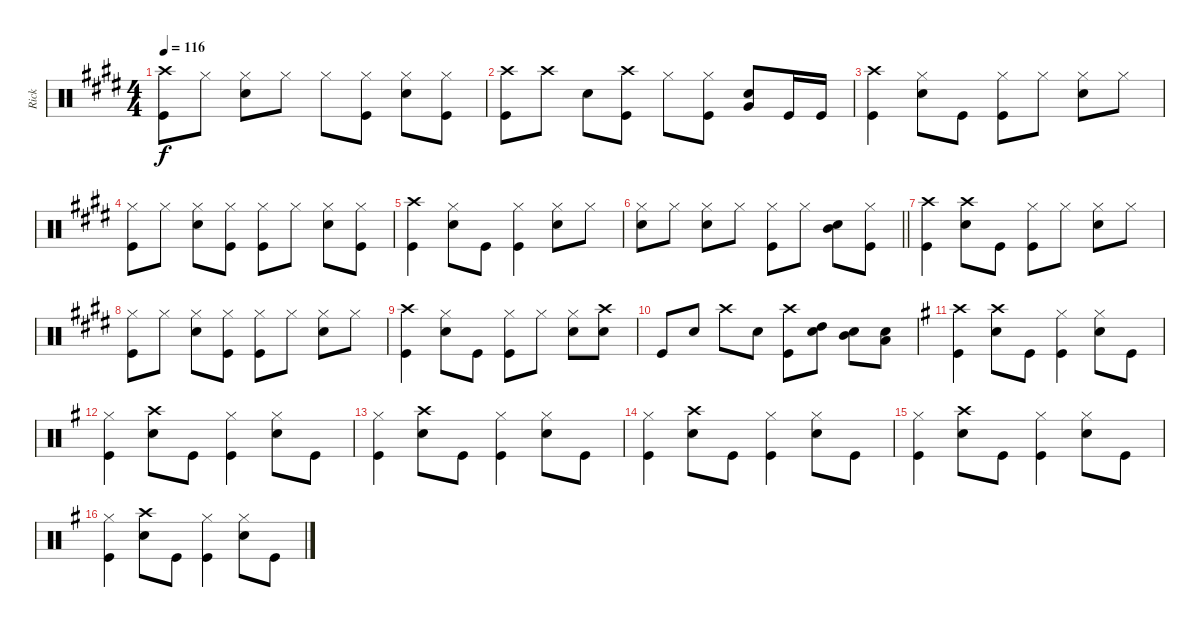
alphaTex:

\track ("Rick" "Rick") {instrument percussion}
\staff {score}
\articulation defaults
\ts (4 4)
\tempo 116
\clef neutral
\ks e
("Crash high (hit)" "Kick (hit)").8{dy f} "Hi-Hat (closed)".8 ("Hi-Hat (closed)" "Snare (hit) 2").8 "Hi-Hat (closed)".8 "Hi-Hat (closed)".8 ("Hi-Hat (closed)" "Kick (hit)").8 ("Hi-Hat (closed)" "Snare (hit) 2").8 ("Hi-Hat (closed)" "Kick (hit)").8 |
("Crash high (hit)" "Kick (hit)").8 "Crash high (hit)".8 "Snare (hit) 2".8 ("Crash high (hit)" "Kick (hit)").8 "Hi-Hat (closed)".8 ("Hi-Hat (closed)" "Kick (hit)").8 ("Snare (hit) 2" "Very Low Tom (hit)").8 "Kick (hit)".16 "Kick (hit)".16 |
("Crash high (hit)" "Kick (hit)").4 ("Hi-Hat (closed)" "Snare (hit) 2").8 "Kick (hit)".8 ("Hi-Hat (closed)" "Kick (hit)").8 "Hi-Hat (closed)".8 ("Hi-Hat (closed)" "Snare (hit) 2").8 "Hi-Hat (closed)".8 |
("Hi-Hat (closed)" "Kick (hit)").8 "Hi-Hat (closed)".8 ("Hi-Hat (closed)" "Snare (hit) 2").8 ("Hi-Hat (closed)" "Kick (hit)").8 ("Hi-Hat (closed)" "Kick (hit)").8 "Hi-Hat (closed)".8 ("Hi-Hat (closed)" "Snare (hit) 2").8 ("Hi-Hat (closed)" "Kick (hit)").8 |
("Crash high (hit)" "Kick (hit)").4 ("Hi-Hat (closed)" "Snare (hit) 2").8 "Kick (hit)".8 ("Hi-Hat (closed)" "Kick (hit)").4 ("Hi-Hat (closed)" "Snare (hit) 2").8 "Hi-Hat (closed)".8 |
\barLineRight lightlight
("Hi-Hat (closed)" "Snare (hit) 2").8 "Hi-Hat (closed)".8 ("Hi-Hat (closed)" "Snare (hit) 2").8 "Hi-Hat (closed)".8 ("Hi-Hat (closed)" "Kick (hit)").8 "Hi-Hat (closed)".8 ("Mid Tom (hit)" "Snare (hit) 2").8 ("Hi-Hat (closed)" "Kick (hit)").8 |
("Crash high (hit)" "Kick (hit)").4 ("Crash high (hit)" "Snare (hit) 2").8 "Kick (hit)".8 ("Hi-Hat (closed)" "Kick (hit)").8 "Hi-Hat (closed)".8 ("Hi-Hat (closed)" "Snare (hit) 2").8 "Hi-Hat (closed)".8 |
("Hi-Hat (closed)" "Kick (hit)").8 "Hi-Hat (closed)".8 ("Hi-Hat (closed)" "Snare (hit) 2").8 ("Hi-Hat (closed)" "Kick (hit)").8 ("Hi-Hat (closed)" "Kick (hit)").8 "Hi-Hat (closed)".8 ("Hi-Hat (closed)" "Snare (hit) 2").8 "Hi-Hat (closed)".8 |
("Crash high (hit)" "Kick (hit)").4 ("Hi-Hat (closed)" "Snare (hit) 2").8 "Kick (hit)".8 ("Hi-Hat (closed)" "Kick (hit)").8 "Hi-Hat (closed)".8 ("Hi-Hat (closed)" "Snare (hit) 2").8 ("Crash high (hit)" "Snare (hit) 2").8 |
"Kick (hit)".8 "Snare (hit) 2".8 "Crash high (hit)".8 "Snare (hit) 2".8 ("Crash high (hit)" "Kick (hit)").8 ("High Tom (hit)" "Snare (hit) 2").8 ("Mid Tom (hit)" "Snare (hit) 2").8 ("Low Tom (hit)" "Snare (hit) 2").8 |
\ks g
("Crash high (hit)" "Kick (hit)").4 ("Crash high (hit)" "Snare (hit) 2").8 "Kick (hit)".8 ("Hi-Hat (closed)" "Kick (hit)").4 ("Hi-Hat (closed)" "Snare (hit) 2").8 "Kick (hit)".8 |
("Hi-Hat (closed)" "Kick (hit)").4 ("Crash high (hit)" "Snare (hit) 2").8 "Kick (hit)".8 ("Hi-Hat (closed)" "Kick (hit)").4 ("Hi-Hat (closed)" "Snare (hit) 2").8 "Kick (hit)".8 |
("Hi-Hat (closed)" "Kick (hit)").4 ("Crash high (hit)" "Snare (hit) 2").8 "Kick (hit)".8 ("Hi-Hat (closed)" "Kick (hit)").4 ("Hi-Hat (closed)" "Snare (hit) 2").8 "Kick (hit)".8 |
("Hi-Hat (closed)" "Kick (hit)").4 ("Crash high (hit)" "Snare (hit) 2").8 "Kick (hit)".8 ("Hi-Hat (closed)" "Kick (hit)").4 ("Hi-Hat (closed)" "Snare (hit) 2").8 "Kick (hit)".8 |
("Hi-Hat (closed)" "Kick (hit)").4 ("Crash high (hit)" "Snare (hit) 2").8 "Kick (hit)".8 ("Hi-Hat (closed)" "Kick (hit)").4 ("Hi-Hat (closed)" "Snare (hit) 2").8 "Kick (hit)".8 |
("Hi-Hat (closed)" "Kick (hit)").4 ("Crash high (hit)" "Snare (hit) 2").8 "Kick (hit)".8 ("Hi-Hat (closed)" "Kick (hit)").4 ("Hi-Hat (closed)" "Snare (hit) 2").8 "Kick (hit)".8
